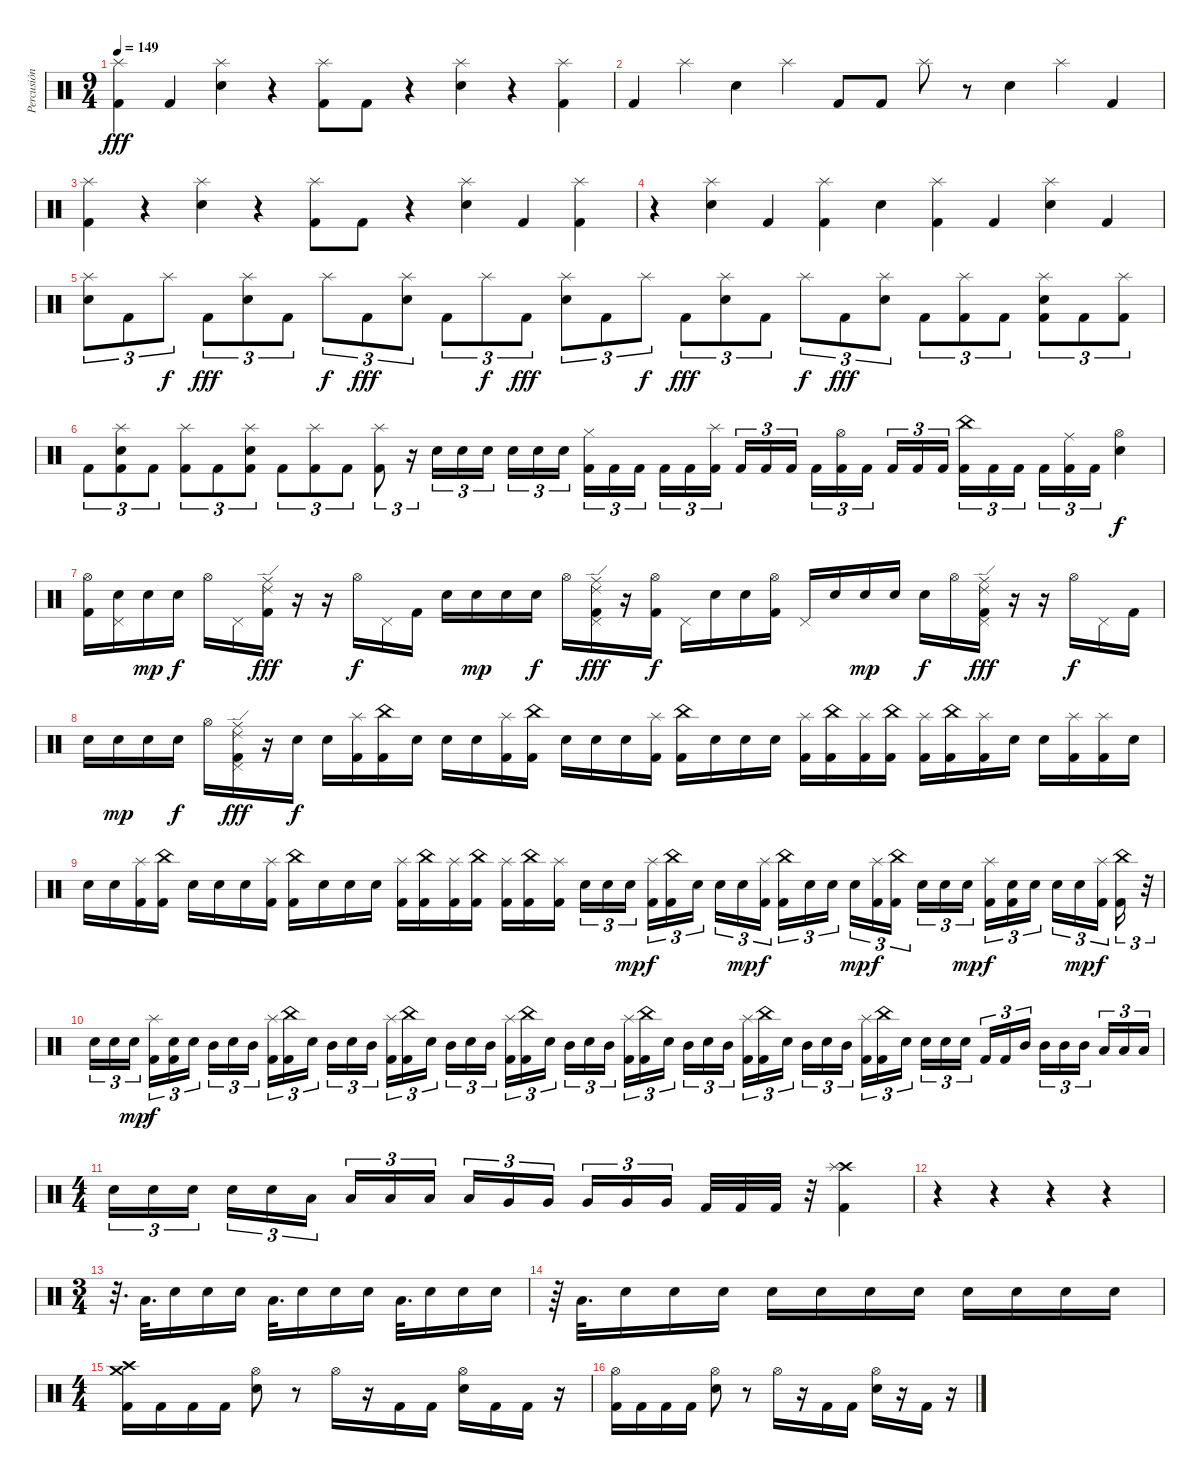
\track ("Percusión" "Percusión") {instrument percussion}
\staff {score}
\articulation defaults
\ts (9 4)
\tempo 149
\clef neutral
\ks c
("Splash (hit)" "Kick (hit) 2").4{dy fff} "Kick (hit) 2".4 ("Splash (hit)" "Electric Snare (hit)").4 r.4 ("Splash (hit)" "Kick (hit) 2").8 "Kick (hit) 2".8 r.4 ("Splash (hit)" "Electric Snare (hit)").4 r.4 ("Splash (hit)" "Kick (hit) 2").4 |
"Kick (hit) 2".4 "Splash (hit)".4 "Electric Snare (hit)".4 "Splash (hit)".4 "Kick (hit) 2".8 "Kick (hit) 2".8 "Splash (hit)".8 r.8 "Electric Snare (hit)".4 "Splash (hit)".4 "Kick (hit) 2".4 |
("Splash (hit)" "Kick (hit) 2").4 r.4 ("Splash (hit)" "Electric Snare (hit)").4 r.4 ("Splash (hit)" "Kick (hit) 2").8 "Kick (hit) 2".8 r.4 ("Splash (hit)" "Electric Snare (hit)").4 "Kick (hit) 2".4 ("Splash (hit)" "Kick (hit) 2").4 |
r.4 ("Splash (hit)" "Electric Snare (hit)").4 "Kick (hit) 2".4 ("Splash (hit)" "Kick (hit) 2").4 "Electric Snare (hit)".4 ("Splash (hit)" "Kick (hit) 2").4 "Kick (hit) 2".4 ("Splash (hit)" "Electric Snare (hit)").4 "Kick (hit) 2".4 |
("Splash (hit)" "Electric Snare (hit)").8{tu (3 2)} "Kick (hit) 2".8{tu (3 2)} "Splash (hit)".8{tu (3 2) dy f} "Kick (hit) 2".8{tu (3 2) dy fff} ("Splash (hit)" "Electric Snare (hit)").8{tu (3 2)} "Kick (hit) 2".8{tu (3 2)} "Splash (hit)".8{tu (3 2) dy f} "Kick (hit) 2".8{tu (3 2) dy fff} ("Splash (hit)" "Electric Snare (hit)").8{tu (3 2)} "Kick (hit) 2".8{tu (3 2)} "Splash (hit)".8{tu (3 2) dy f} "Kick (hit) 2".8{tu (3 2) dy fff} ("Splash (hit)" "Electric Snare (hit)").8{tu (3 2)} "Kick (hit) 2".8{tu (3 2)} "Splash (hit)".8{tu (3 2) dy f} "Kick (hit) 2".8{tu (3 2) dy fff} ("Splash (hit)" "Electric Snare (hit)").8{tu (3 2)} "Kick (hit) 2".8{tu (3 2)} "Splash (hit)".8{tu (3 2) dy f} "Kick (hit) 2".8{tu (3 2) dy fff} ("Splash (hit)" "Electric Snare (hit)").8{tu (3 2)} "Kick (hit) 2".8{tu (3 2)} ("Splash (hit)" "Kick (hit) 2").8{tu (3 2)} "Kick (hit) 2".8{tu (3 2)} ("Splash (hit)" "Electric Snare (hit)" "Kick (hit) 2").8{tu (3 2)} "Kick (hit) 2".8{tu (3 2)} ("Splash (hit)" "Kick (hit) 2").8{tu (3 2)} |
"Kick (hit) 2".8{tu (3 2)} ("Splash (hit)" "Electric Snare (hit)" "Kick (hit) 2").8{tu (3 2)} "Kick (hit) 2".8{tu (3 2)} ("Splash (hit)" "Kick (hit) 2").8{tu (3 2)} "Kick (hit) 2".8{tu (3 2)} ("Splash (hit)" "Electric Snare (hit)" "Kick (hit) 2").8{tu (3 2)} "Kick (hit) 2".8{tu (3 2)} ("Splash (hit)" "Kick (hit) 2").8{tu (3 2)} "Kick (hit) 2".8{tu (3 2)} ("Splash (hit)" "Kick (hit) 2").8{tu (3 2)} r.16{tu (3 2)} "Electric Snare (hit)".16{tu (3 2)} "Electric Snare (hit)".16{tu (3 2)} "Electric Snare (hit)".16{tu (3 2) beam splitsecondary} "Electric Snare (hit)".16{tu (3 2)} "Electric Snare (hit)".16{tu (3 2)} "Electric Snare (hit)".16{tu (3 2) beam splitsecondary} ("Hi-Hat (closed)" "Kick (hit) 2").16{tu (3 2)} "Kick (hit) 2".16{tu (3 2)} "Kick (hit) 2".16{tu (3 2) beam splitsecondary} "Kick (hit) 2".16{tu (3 2)} "Kick (hit) 2".16{tu (3 2)} ("Splash (hit)" "Kick (hit) 2").16{tu (3 2) beam splitsecondary} "Kick (hit) 2".16{tu (3 2)} "Kick (hit) 2".16{tu (3 2)} "Kick (hit) 2".16{tu (3 2)} "Kick (hit) 2".16{tu (3 2)} ("Hi-Hat (open)" "Kick (hit) 2").16{tu (3 2)} "Kick (hit) 2".16{tu (3 2) beam splitsecondary} "Kick (hit) 2".16{tu (3 2)} "Kick (hit) 2".16{tu (3 2)} "Kick (hit) 2".16{tu (3 2) beam splitsecondary} ("China (hit)" "Kick (hit) 2").16{tu (3 2)} "Kick (hit) 2".16{tu (3 2)} "Kick (hit) 2".16{tu (3 2) beam splitsecondary} "Kick (hit) 2".16{tu (3 2)} ("Ride (middle)" "Kick (hit) 2").16{tu (3 2)} "Kick (hit) 2".16{tu (3 2)} ("Hi-Hat (open)" "Electric Snare (hit)").4{dy f} |
("Hi-Hat (open)" "Kick (hit) 2").16 ("Pedal Hi-Hat (hit)" "Electric Snare (hit)").16 "Electric Snare (hit)".16{dy mp} "Electric Snare (hit)".16{dy f} "Hi-Hat (open)".16 "Pedal Hi-Hat (hit)".16 ("Ride (middle)" "Ride (edge) 2" "Kick (hit) 2").16{dy fff} r.16 r.16 "Hi-Hat (open)".16{dy f} "Pedal Hi-Hat (hit)".16 "Kick (hit) 2".16 "Electric Snare (hit)".16 "Electric Snare (hit)".16{dy mp} "Electric Snare (hit)".16 "Electric Snare (hit)".16{dy f} "Hi-Hat (open)".16 ("Ride (middle)" "Ride (edge) 2" "Pedal Hi-Hat (hit)" "Kick (hit) 2").16{dy fff} r.16 ("Hi-Hat (open)" "Kick (hit) 2").16{dy f} "Pedal Hi-Hat (hit)".16 "Electric Snare (hit)".16 "Electric Snare (hit)".16 ("Hi-Hat (open)" "Kick (hit) 2").16 "Pedal Hi-Hat (hit)".16 "Electric Snare (hit)".16 "Electric Snare (hit)".16{dy mp} "Electric Snare (hit)".16 "Electric Snare (hit)".16{dy f} "Hi-Hat (open)".16 ("Ride (middle)" "Ride (edge) 2" "Pedal Hi-Hat (hit)" "Kick (hit) 2").16{dy fff} r.16 r.16 "Hi-Hat (open)".16{dy f} "Pedal Hi-Hat (hit)".16 "Kick (hit) 2".16 |
"Electric Snare (hit)".16 "Electric Snare (hit)".16{dy mp} "Electric Snare (hit)".16 "Electric Snare (hit)".16{dy f} "Hi-Hat (open)".16 ("Ride (edge) 2" "Ride (middle)" "Pedal Hi-Hat (hit)" "Kick (hit) 2").16{dy fff} r.16 "Electric Snare (hit)".16{dy f} "Electric Snare (hit)".16 ("Splash (hit)" "Kick (hit) 2").16 ("China (hit)" "Kick (hit) 2").16 "Electric Snare (hit)".16 "Electric Snare (hit)".16 "Electric Snare (hit)".16 ("Splash (hit)" "Kick (hit) 2").16 ("China (hit)" "Kick (hit) 2").16 "Electric Snare (hit)".16 "Electric Snare (hit)".16 "Electric Snare (hit)".16 ("Splash (hit)" "Kick (hit) 2").16 ("China (hit)" "Kick (hit) 2").16 "Electric Snare (hit)".16 "Electric Snare (hit)".16 "Electric Snare (hit)".16 ("Splash (hit)" "Kick (hit) 2").16 ("China (hit)" "Kick (hit) 2").16 ("Splash (hit)" "Kick (hit) 2").16 ("China (hit)" "Kick (hit) 2").16 ("Splash (hit)" "Kick (hit) 2").16 ("China (hit)" "Kick (hit) 2").16 ("Splash (hit)" "Kick (hit) 2").16 "Electric Snare (hit)".16 "Electric Snare (hit)".16 ("Splash (hit)" "Kick (hit) 2").16 ("Splash (hit)" "Kick (hit) 2").16 "Electric Snare (hit)".16 |
"Electric Snare (hit)".16 "Electric Snare (hit)".16 ("Splash (hit)" "Kick (hit) 2").16 ("China (hit)" "Kick (hit) 2").16 "Electric Snare (hit)".16 "Electric Snare (hit)".16 "Electric Snare (hit)".16 ("Splash (hit)" "Kick (hit) 2").16 ("China (hit)" "Kick (hit) 2").16 "Electric Snare (hit)".16 "Electric Snare (hit)".16 "Electric Snare (hit)".16 ("Splash (hit)" "Kick (hit) 2").16 ("China (hit)" "Kick (hit) 2").16 ("Splash (hit)" "Kick (hit) 2").16 ("China (hit)" "Kick (hit) 2").16 ("Splash (hit)" "Kick (hit) 2").16 ("China (hit)" "Kick (hit) 2").16 ("Splash (hit)" "Kick (hit) 2").16{beam splitsecondary} "Electric Snare (hit)".16{tu (3 2)} "Electric Snare (hit)".16{tu (3 2)} "Electric Snare (hit)".16{tu (3 2) dy mp beam splitsecondary} ("Splash (hit)" "Kick (hit) 2").16{tu (3 2) dy f} ("China (hit)" "Kick (hit) 2").16{tu (3 2)} "Electric Snare (hit)".16{tu (3 2) beam splitsecondary} "Electric Snare (hit)".16{tu (3 2)} "Electric Snare (hit)".16{tu (3 2) dy mp} ("Splash (hit)" "Kick (hit) 2").16{tu (3 2) dy f beam splitsecondary} ("China (hit)" "Kick (hit) 2").16{tu (3 2)} "Electric Snare (hit)".16{tu (3 2)} "Electric Snare (hit)".16{tu (3 2) beam splitsecondary} "Electric Snare (hit)".16{tu (3 2) dy mp} ("Splash (hit)" "Kick (hit) 2").16{tu (3 2) dy f} ("China (hit)" "Kick (hit) 2").16{tu (3 2) beam splitsecondary} "Electric Snare (hit)".16{tu (3 2)} "Electric Snare (hit)".16{tu (3 2)} "Electric Snare (hit)".16{tu (3 2) dy mp beam splitsecondary} ("Splash (hit)" "Kick (hit) 2").16{tu (3 2) dy f} ("Snare (hit)" "Kick (hit) 2").16{tu (3 2)} "Electric Snare (hit)".16{tu (3 2) beam splitsecondary} "Electric Snare (hit)".16{tu (3 2)} "Electric Snare (hit)".16{tu (3 2) dy mp} ("Splash (hit)" "Kick (hit) 2").16{tu (3 2) dy f beam splitsecondary} ("China (hit)" "Kick (hit) 2").16{tu (3 2)} r.32{tu (3 2)} |
"Electric Snare (hit)".16{tu (3 2)} "Electric Snare (hit)".16{tu (3 2)} "Electric Snare (hit)".16{tu (3 2) dy mp beam splitsecondary} ("Splash (hit)" "Kick (hit) 2").16{tu (3 2) dy f} ("Snare (hit)" "Kick (hit) 2").16{tu (3 2)} "Electric Snare (hit)".16{tu (3 2) beam splitsecondary} "Mid Tom (hit)".16{tu (3 2)} "Electric Snare (hit)".16{tu (3 2)} "Mid Tom (hit)".16{tu (3 2) beam splitsecondary} ("Splash (hit)" "Kick (hit) 2").16{tu (3 2)} ("China (hit)" "Kick (hit) 2").16{tu (3 2)} "Electric Snare (hit)".16{tu (3 2) beam splitsecondary} "Mid Tom (hit)".16{tu (3 2)} "Electric Snare (hit)".16{tu (3 2)} "Mid Tom (hit)".16{tu (3 2) beam splitsecondary} ("Splash (hit)" "Kick (hit) 2").16{tu (3 2)} ("China (hit)" "Kick (hit) 2").16{tu (3 2)} "Electric Snare (hit)".16{tu (3 2)} "Mid Tom (hit)".16{tu (3 2)} "Electric Snare (hit)".16{tu (3 2)} "Mid Tom (hit)".16{tu (3 2) beam splitsecondary} ("Splash (hit)" "Kick (hit) 2").16{tu (3 2)} ("China (hit)" "Kick (hit) 2").16{tu (3 2)} "Electric Snare (hit)".16{tu (3 2) beam splitsecondary} "Mid Tom (hit)".16{tu (3 2)} "Electric Snare (hit)".16{tu (3 2)} "Mid Tom (hit)".16{tu (3 2) beam splitsecondary} ("Splash (hit)" "Kick (hit) 2").16{tu (3 2)} ("China (hit)" "Kick (hit) 2").16{tu (3 2)} "Electric Snare (hit)".16{tu (3 2) beam splitsecondary} "Mid Tom (hit)".16{tu (3 2)} "Electric Snare (hit)".16{tu (3 2)} "Mid Tom (hit)".16{tu (3 2) beam splitsecondary} ("Splash (hit)" "Kick (hit) 2").16{tu (3 2)} ("China (hit)" "Kick (hit) 2").16{tu (3 2)} "Electric Snare (hit)".16{tu (3 2)} "Mid Tom (hit)".16{tu (3 2)} "Electric Snare (hit)".16{tu (3 2)} "Mid Tom (hit)".16{tu (3 2) beam splitsecondary} ("Splash (hit)" "Kick (hit) 2").16{tu (3 2)} ("China (hit)" "Kick (hit) 2").16{tu (3 2)} "Electric Snare (hit)".16{tu (3 2) beam splitsecondary} "Electric Snare (hit)".16{tu (3 2)} "Electric Snare (hit)".16{tu (3 2)} "Electric Snare (hit)".16{tu (3 2) beam splitsecondary} "Kick (hit) 2".16{tu (3 2)} "Kick (hit) 2".16{tu (3 2)} "Mid Tom (hit)".16{tu (3 2) beam splitsecondary} "Mid Tom (hit)".16{tu (3 2)} "Mid Tom (hit)".16{tu (3 2)} "Mid Tom (hit)".16{tu (3 2) beam splitsecondary} "Low Tom (hit)".16{tu (3 2)} "Low Tom (hit)".16{tu (3 2)} "Low Tom (hit)".16{tu (3 2)} |
\ts (4 4)
"Electric Snare (hit)".16{tu (3 2)} "Electric Snare (hit)".16{tu (3 2)} "Electric Snare (hit)".16{tu (3 2) beam splitsecondary} "Electric Snare (hit)".16{tu (3 2)} "Electric Snare (hit)".16{tu (3 2)} "Low Tom (hit)".16{tu (3 2)} "Low Tom (hit)".16{tu (3 2)} "Low Tom (hit)".16{tu (3 2)} "Low Tom (hit)".16{tu (3 2) beam splitsecondary} "Low Tom (hit)".16{tu (3 2)} "Very Low Tom (hit)".16{tu (3 2)} "Very Low Tom (hit)".16{tu (3 2)} "Very Low Tom (hit)".16{tu (3 2)} "Very Low Tom (hit)".16{tu (3 2)} "Very Low Tom (hit)".16{tu (3 2) beam splitsecondary} "Kick (hit) 2".32 "Kick (hit) 2".32 "Kick (hit) 2".32 r.32 ("Crash high (hit)" "Splash (hit)" "Kick (hit) 2").4 |
r.4 r.4 r.4 r.4 |
\ts (3 4)
r.32{d} "Low Tom (hit)".32{d} "Electric Snare (hit)".16 "Electric Snare (hit)".16 "Electric Snare (hit)".16 "Low Tom (hit)".32{d} "Electric Snare (hit)".16 "Electric Snare (hit)".16 "Electric Snare (hit)".16 "Low Tom (hit)".32{d} "Electric Snare (hit)".16 "Electric Snare (hit)".16 "Electric Snare (hit)".16 |
r.64 "Low Tom (hit)".32{d} "Electric Snare (hit)".16 "Electric Snare (hit)".16 "Electric Snare (hit)".16 "Electric Snare (hit)".16 "Electric Snare (hit)".16 "Electric Snare (hit)".16 "Electric Snare (hit)".16 "Electric Snare (hit)".16 "Electric Snare (hit)".16 "Electric Snare (hit)".16 "Electric Snare (hit)".16 |
\ts (4 4)
("Crash high (hit)" "Crash medium (hit)" "Kick (hit) 2").16 "Kick (hit) 2".16 "Kick (hit) 2".16 "Kick (hit) 2".16 ("Hi-Hat (open)" "Electric Snare (hit)").8 r.8 "Hi-Hat (open)".16 r.16 "Kick (hit) 2".16 "Kick (hit) 2".16 ("Hi-Hat (open)" "Electric Snare (hit)").16 "Kick (hit) 2".16 "Kick (hit) 2".16 r.16 |
("Hi-Hat (open)" "Kick (hit) 2").16 "Kick (hit) 2".16 "Kick (hit) 2".16 "Kick (hit) 2".16 ("Hi-Hat (open)" "Electric Snare (hit)").8 r.8 "Hi-Hat (open)".16 r.16 "Kick (hit) 2".16 "Kick (hit) 2".16 ("Hi-Hat (open)" "Electric Snare (hit)").16 r.16 "Kick (hit) 2".16 r.16
